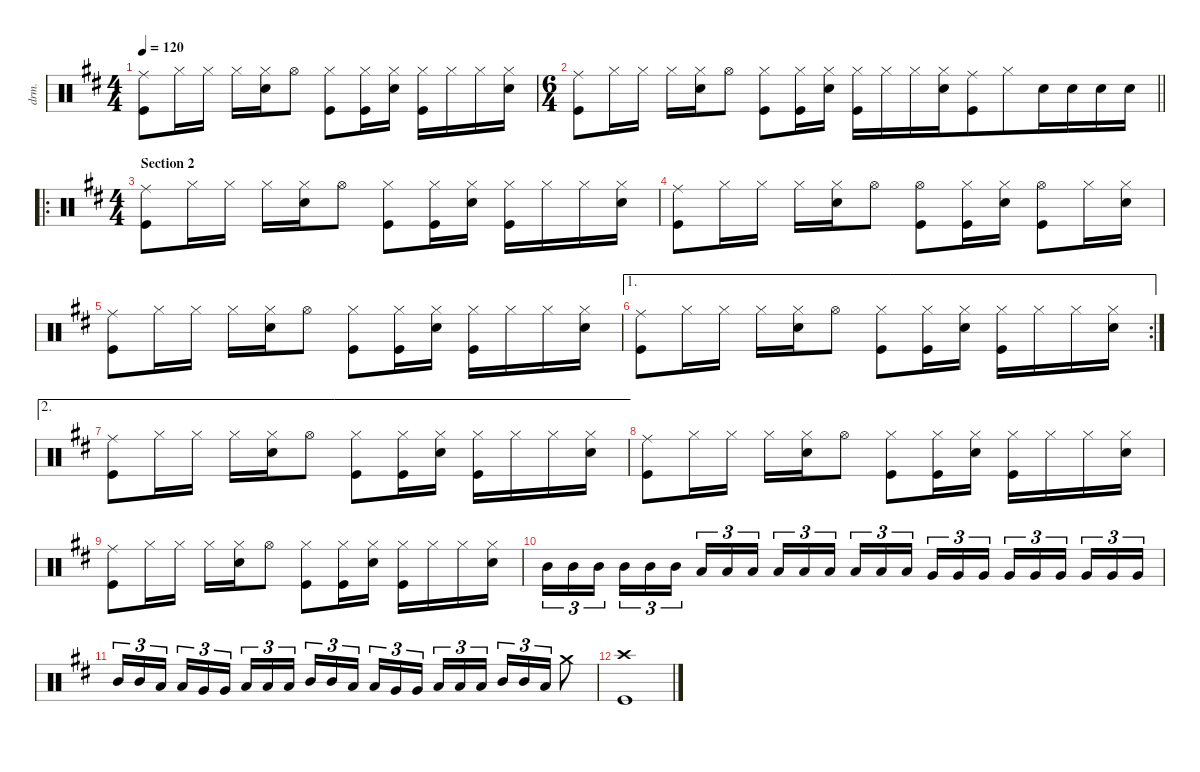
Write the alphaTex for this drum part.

\defaultSystemsLayout 4
\hideDynamics
\bracketExtendMode nobrackets
\otherSystemsTrackNameOrientation horizontal
\track ("Drums" "drm.") {instrument percussion}
\staff {score}
\articulation defaults
\ts (4 4)
\tempo 120
\clef neutral
\ks d
("Ride (middle)"{acc forcenatural} "Kick (hit)"{acc forcenatural}).8{dy f} "Hi-Hat (closed)"{acc forcenatural}.16 "Hi-Hat (closed)"{acc forcenatural}.16 "Hi-Hat (closed)"{acc forcenatural}.16 ("Hi-Hat (closed)"{acc forcenatural} "Snare (hit) 2"{acc forcenatural}).16 "Hi-Hat (open)"{acc forcenatural}.8 ("Hi-Hat (closed)"{acc forcenatural} "Kick (hit)"{acc forcenatural}).8 ("Hi-Hat (closed)"{acc forcenatural} "Kick (hit)"{acc forcenatural}).16 ("Hi-Hat (closed)"{acc forcenatural} "Snare (hit) 2"{acc forcenatural}).16 ("Hi-Hat (closed)"{acc forcenatural} "Kick (hit)"{acc forcenatural}).16 "Hi-Hat (closed)"{acc forcenatural}.16 "Hi-Hat (closed)"{acc forcenatural}.16 ("Hi-Hat (closed)"{acc forcenatural} "Snare (hit) 2"{acc forcenatural}).16 |
\ts (6 4)
\beaming (8 2 2 2 6)
\barLineRight lightlight
("Ride (middle)"{acc forcenatural} "Kick (hit)"{acc forcenatural}).8 "Hi-Hat (closed)"{acc forcenatural}.16 "Hi-Hat (closed)"{acc forcenatural}.16 "Hi-Hat (closed)"{acc forcenatural}.16 ("Hi-Hat (closed)"{acc forcenatural} "Snare (hit) 2"{acc forcenatural}).16 "Hi-Hat (open)"{acc forcenatural}.8 ("Hi-Hat (closed)"{acc forcenatural} "Kick (hit)"{acc forcenatural}).8 ("Hi-Hat (closed)"{acc forcenatural} "Kick (hit)"{acc forcenatural}).16 ("Hi-Hat (closed)"{acc forcenatural} "Snare (hit) 2"{acc forcenatural}).16 ("Hi-Hat (closed)"{acc forcenatural} "Kick (hit)"{acc forcenatural}).16 "Hi-Hat (closed)"{acc forcenatural}.16 "Hi-Hat (closed)"{acc forcenatural}.16 ("Hi-Hat (closed)"{acc forcenatural} "Snare (hit) 2"{acc forcenatural}).16 ("Ride (middle)"{acc forcenatural} "Kick (hit)"{acc forcenatural}).8 "Hi-Hat (closed)"{acc forcenatural}.8 "Snare (hit) 2"{acc forcenatural}.16 "Snare (hit) 2"{acc forcenatural}.16 "Snare (hit) 2"{acc forcenatural}.16 "Snare (hit) 2"{acc forcenatural}.16 |
\ro
\ts (4 4)
\beaming (8 2 2 2 2)
\section ("" "Section 2")
("Ride (middle)"{acc forcenatural} "Kick (hit)"{acc forcenatural}).8 "Hi-Hat (closed)"{acc forcenatural}.16 "Hi-Hat (closed)"{acc forcenatural}.16 "Hi-Hat (closed)"{acc forcenatural}.16 ("Hi-Hat (closed)"{acc forcenatural} "Snare (hit) 2"{acc forcenatural}).16 "Hi-Hat (open)"{acc forcenatural}.8 ("Hi-Hat (closed)"{acc forcenatural} "Kick (hit)"{acc forcenatural}).8 ("Hi-Hat (closed)"{acc forcenatural} "Kick (hit)"{acc forcenatural}).16 ("Hi-Hat (closed)"{acc forcenatural} "Snare (hit) 2"{acc forcenatural}).16 ("Hi-Hat (closed)"{acc forcenatural} "Kick (hit)"{acc forcenatural}).16 "Hi-Hat (closed)"{acc forcenatural}.16 "Hi-Hat (closed)"{acc forcenatural}.16 ("Hi-Hat (closed)"{acc forcenatural} "Snare (hit) 2"{acc forcenatural}).16 |
("Ride (middle)"{acc forcenatural} "Kick (hit)"{acc forcenatural}).8 "Hi-Hat (closed)"{acc forcenatural}.16 "Hi-Hat (closed)"{acc forcenatural}.16 "Hi-Hat (closed)"{acc forcenatural}.16 ("Hi-Hat (closed)"{acc forcenatural} "Snare (hit) 2"{acc forcenatural}).16 "Hi-Hat (open)"{acc forcenatural}.8 ("Hi-Hat (open)"{acc forcenatural} "Kick (hit)"{acc forcenatural}).8 ("Hi-Hat (closed)"{acc forcenatural} "Kick (hit)"{acc forcenatural}).16 ("Hi-Hat (closed)"{acc forcenatural} "Snare (hit) 2"{acc forcenatural}).16 ("Hi-Hat (open)"{acc forcenatural} "Kick (hit)"{acc forcenatural}).8 "Hi-Hat (closed)"{acc forcenatural}.16 ("Hi-Hat (closed)"{acc forcenatural} "Snare (hit) 2"{acc forcenatural}).16 |
("Ride (middle)"{acc forcenatural} "Kick (hit)"{acc forcenatural}).8 "Hi-Hat (closed)"{acc forcenatural}.16 "Hi-Hat (closed)"{acc forcenatural}.16 "Hi-Hat (closed)"{acc forcenatural}.16 ("Hi-Hat (closed)"{acc forcenatural} "Snare (hit) 2"{acc forcenatural}).16 "Hi-Hat (open)"{acc forcenatural}.8 ("Hi-Hat (closed)"{acc forcenatural} "Kick (hit)"{acc forcenatural}).8 ("Hi-Hat (closed)"{acc forcenatural} "Kick (hit)"{acc forcenatural}).16 ("Hi-Hat (closed)"{acc forcenatural} "Snare (hit) 2"{acc forcenatural}).16 ("Hi-Hat (closed)"{acc forcenatural} "Kick (hit)"{acc forcenatural}).16 "Hi-Hat (closed)"{acc forcenatural}.16 "Hi-Hat (closed)"{acc forcenatural}.16 ("Hi-Hat (closed)"{acc forcenatural} "Snare (hit) 2"{acc forcenatural}).16 |
\ae 1
\rc 2
("Ride (middle)"{acc forcenatural} "Kick (hit)"{acc forcenatural}).8 "Hi-Hat (closed)"{acc forcenatural}.16 "Hi-Hat (closed)"{acc forcenatural}.16 "Hi-Hat (closed)"{acc forcenatural}.16 ("Hi-Hat (closed)"{acc forcenatural} "Snare (hit) 2"{acc forcenatural}).16 "Hi-Hat (open)"{acc forcenatural}.8 ("Hi-Hat (closed)"{acc forcenatural} "Kick (hit)"{acc forcenatural}).8 ("Hi-Hat (closed)"{acc forcenatural} "Kick (hit)"{acc forcenatural}).16 ("Hi-Hat (closed)"{acc forcenatural} "Snare (hit) 2"{acc forcenatural}).16 ("Hi-Hat (closed)"{acc forcenatural} "Kick (hit)"{acc forcenatural}).16 "Hi-Hat (closed)"{acc forcenatural}.16 "Hi-Hat (closed)"{acc forcenatural}.16 ("Hi-Hat (closed)"{acc forcenatural} "Snare (hit) 2"{acc forcenatural}).16 |
\ae 2
("Ride (middle)"{acc forcenatural} "Kick (hit)"{acc forcenatural}).8 "Hi-Hat (closed)"{acc forcenatural}.16 "Hi-Hat (closed)"{acc forcenatural}.16 "Hi-Hat (closed)"{acc forcenatural}.16 ("Hi-Hat (closed)"{acc forcenatural} "Snare (hit) 2"{acc forcenatural}).16 "Hi-Hat (open)"{acc forcenatural}.8 ("Hi-Hat (closed)"{acc forcenatural} "Kick (hit)"{acc forcenatural}).8 ("Hi-Hat (closed)"{acc forcenatural} "Kick (hit)"{acc forcenatural}).16 ("Hi-Hat (closed)"{acc forcenatural} "Snare (hit) 2"{acc forcenatural}).16 ("Hi-Hat (closed)"{acc forcenatural} "Kick (hit)"{acc forcenatural}).16 "Hi-Hat (closed)"{acc forcenatural}.16 "Hi-Hat (closed)"{acc forcenatural}.16 ("Hi-Hat (closed)"{acc forcenatural} "Snare (hit) 2"{acc forcenatural}).16 |
("Ride (middle)"{acc forcenatural} "Kick (hit)"{acc forcenatural}).8 "Hi-Hat (closed)"{acc forcenatural}.16 "Hi-Hat (closed)"{acc forcenatural}.16 "Hi-Hat (closed)"{acc forcenatural}.16 ("Hi-Hat (closed)"{acc forcenatural} "Snare (hit) 2"{acc forcenatural}).16 "Hi-Hat (open)"{acc forcenatural}.8 ("Hi-Hat (closed)"{acc forcenatural} "Kick (hit)"{acc forcenatural}).8 ("Hi-Hat (closed)"{acc forcenatural} "Kick (hit)"{acc forcenatural}).16 ("Hi-Hat (closed)"{acc forcenatural} "Snare (hit) 2"{acc forcenatural}).16 ("Hi-Hat (closed)"{acc forcenatural} "Kick (hit)"{acc forcenatural}).16 "Hi-Hat (closed)"{acc forcenatural}.16 "Hi-Hat (closed)"{acc forcenatural}.16 ("Hi-Hat (closed)"{acc forcenatural} "Snare (hit) 2"{acc forcenatural}).16 |
("Ride (middle)"{acc forcenatural} "Kick (hit)"{acc forcenatural}).8 "Hi-Hat (closed)"{acc forcenatural}.16 "Hi-Hat (closed)"{acc forcenatural}.16 "Hi-Hat (closed)"{acc forcenatural}.16 ("Hi-Hat (closed)"{acc forcenatural} "Snare (hit) 2"{acc forcenatural}).16 "Hi-Hat (open)"{acc forcenatural}.8 ("Hi-Hat (closed)"{acc forcenatural} "Kick (hit)"{acc forcenatural}).8 ("Hi-Hat (closed)"{acc forcenatural} "Kick (hit)"{acc forcenatural}).16 ("Hi-Hat (closed)"{acc forcenatural} "Snare (hit) 2"{acc forcenatural}).16 ("Hi-Hat (closed)"{acc forcenatural} "Kick (hit)"{acc forcenatural}).16 "Hi-Hat (closed)"{acc forcenatural}.16 "Hi-Hat (closed)"{acc forcenatural}.16 ("Hi-Hat (closed)"{acc forcenatural} "Snare (hit) 2"{acc forcenatural}).16 |
"Mid Tom (hit)"{acc forcenatural}.16{tu (3 2)} "Mid Tom (hit)"{acc forcenatural}.16{tu (3 2)} "Mid Tom (hit)"{acc forcenatural}.16{tu (3 2)} "Mid Tom (hit)"{acc forcenatural}.16{tu (3 2)} "Mid Tom (hit)"{acc forcenatural}.16{tu (3 2)} "Mid Tom (hit)"{acc forcenatural}.16{tu (3 2)} "Low Tom (hit)"{acc forcenatural}.16{tu (3 2)} "Low Tom (hit)"{acc forcenatural}.16{tu (3 2)} "Low Tom (hit)"{acc forcenatural}.16{tu (3 2)} "Low Tom (hit)"{acc forcenatural}.16{tu (3 2)} "Low Tom (hit)"{acc forcenatural}.16{tu (3 2)} "Low Tom (hit)"{acc forcenatural}.16{tu (3 2)} "Low Tom (hit)"{acc forcenatural}.16{tu (3 2)} "Low Tom (hit)"{acc forcenatural}.16{tu (3 2)} "Low Tom (hit)"{acc forcenatural}.16{tu (3 2)} "Very Low Tom (hit)"{acc forcenatural}.16{tu (3 2)} "Very Low Tom (hit)"{acc forcenatural}.16{tu (3 2)} "Very Low Tom (hit)"{acc forcenatural}.16{tu (3 2)} "Very Low Tom (hit)"{acc forcenatural}.16{tu (3 2)} "Very Low Tom (hit)"{acc forcenatural}.16{tu (3 2)} "Very Low Tom (hit)"{acc forcenatural}.16{tu (3 2)} "Very Low Tom (hit)"{acc forcenatural}.16{tu (3 2)} "Very Low Tom (hit)"{acc forcenatural}.16{tu (3 2)} "Very Low Tom (hit)"{acc forcenatural}.16{tu (3 2)} |
"Mid Tom (hit)"{acc forcenatural}.16{tu (3 2)} "Mid Tom (hit)"{acc forcenatural}.16{tu (3 2)} "Low Tom (hit)"{acc forcenatural}.16{tu (3 2)} "Low Tom (hit)"{acc forcenatural}.16{tu (3 2)} "Very Low Tom (hit)"{acc forcenatural}.16{tu (3 2)} "Very Low Tom (hit)"{acc forcenatural}.16{tu (3 2)} "Low Floor Tom (hit)"{acc forcenatural}.16{tu (3 2)} "Low Floor Tom (hit)"{acc forcenatural}.16{tu (3 2)} "Low Floor Tom (hit)"{acc forcenatural}.16{tu (3 2)} "Mid Tom (hit)"{acc forcenatural}.16{tu (3 2)} "Mid Tom (hit)"{acc forcenatural}.16{tu (3 2)} "Low Tom (hit)"{acc forcenatural}.16{tu (3 2)} "Low Tom (hit)"{acc forcenatural}.16{tu (3 2)} "Very Low Tom (hit)"{acc forcenatural}.16{tu (3 2)} "Very Low Tom (hit)"{acc forcenatural}.16{tu (3 2)} "Low Floor Tom (hit)"{acc forcenatural}.16{tu (3 2)} "Low Floor Tom (hit)"{acc forcenatural}.16{tu (3 2)} "Low Floor Tom (hit)"{acc forcenatural}.16{tu (3 2)} "Mid Tom (hit)"{acc forcenatural}.16{tu (3 2)} "Mid Tom (hit)"{acc forcenatural}.16{tu (3 2)} "Low Tom (hit)"{acc forcenatural}.16{tu (3 2)} "Crash medium (hit)"{acc forcenatural}.8 |
("Crash high (hit)"{acc forcenatural} "Kick (hit)"{acc forcenatural}).1
